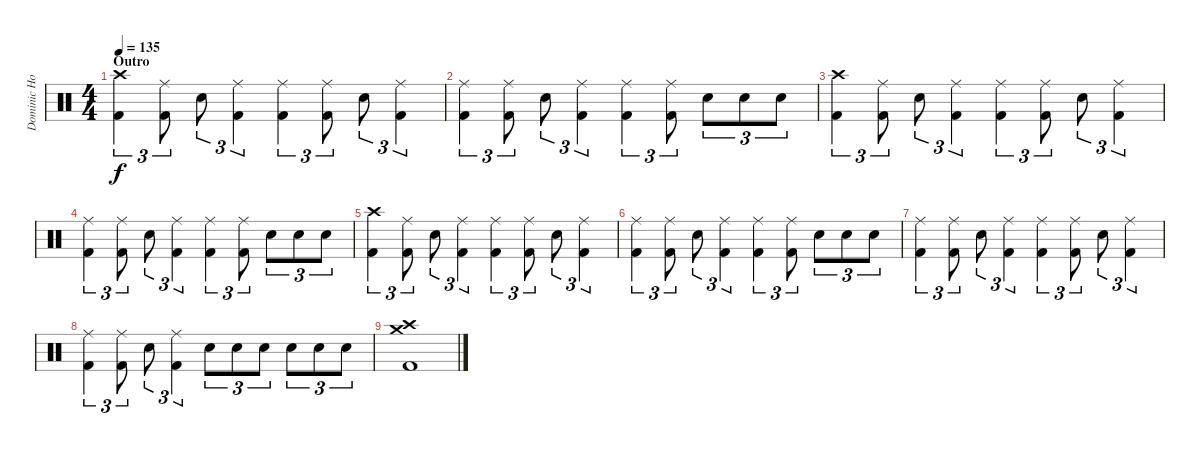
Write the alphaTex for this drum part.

\track ("Dominic Howard (Drums)" "Dominic Ho") {instrument percussion}
\staff {score}
\articulation defaults
\ts (4 4)
\section ("" "Outro")
\tempo 135
\clef neutral
\ks c
("Crash high (hit)" "Kick (hit) 2").4{tu (3 2) dy f} ("Ride (middle)" "Kick (hit) 2").8{tu (3 2)} "Electric Snare (hit)".8{tu (3 2)} ("Ride (middle)" "Kick (hit) 2").4{tu (3 2)} ("Ride (middle)" "Kick (hit) 2").4{tu (3 2)} ("Ride (middle)" "Kick (hit) 2").8{tu (3 2)} "Electric Snare (hit)".8{tu (3 2)} ("Ride (middle)" "Kick (hit) 2").4{tu (3 2)} |
("Ride (middle)" "Kick (hit) 2").4{tu (3 2)} ("Ride (middle)" "Kick (hit) 2").8{tu (3 2)} "Electric Snare (hit)".8{tu (3 2)} ("Ride (middle)" "Kick (hit) 2").4{tu (3 2)} ("Ride (middle)" "Kick (hit) 2").4{tu (3 2)} ("Ride (middle)" "Kick (hit) 2").8{tu (3 2)} "Electric Snare (hit)".8{tu (3 2)} "Electric Snare (hit)".8{tu (3 2)} "Electric Snare (hit)".8{tu (3 2)} |
("Crash high (hit)" "Kick (hit) 2").4{tu (3 2)} ("Ride (middle)" "Kick (hit) 2").8{tu (3 2)} "Electric Snare (hit)".8{tu (3 2)} ("Ride (middle)" "Kick (hit) 2").4{tu (3 2)} ("Ride (middle)" "Kick (hit) 2").4{tu (3 2)} ("Ride (middle)" "Kick (hit) 2").8{tu (3 2)} "Electric Snare (hit)".8{tu (3 2)} ("Ride (middle)" "Kick (hit) 2").4{tu (3 2)} |
("Ride (middle)" "Kick (hit) 2").4{tu (3 2)} ("Ride (middle)" "Kick (hit) 2").8{tu (3 2)} "Electric Snare (hit)".8{tu (3 2)} ("Ride (middle)" "Kick (hit) 2").4{tu (3 2)} ("Ride (middle)" "Kick (hit) 2").4{tu (3 2)} ("Ride (middle)" "Kick (hit) 2").8{tu (3 2)} "Electric Snare (hit)".8{tu (3 2)} "Electric Snare (hit)".8{tu (3 2)} "Electric Snare (hit)".8{tu (3 2)} |
("Crash high (hit)" "Kick (hit) 2").4{tu (3 2)} ("Ride (middle)" "Kick (hit) 2").8{tu (3 2)} "Electric Snare (hit)".8{tu (3 2)} ("Ride (middle)" "Kick (hit) 2").4{tu (3 2)} ("Ride (middle)" "Kick (hit) 2").4{tu (3 2)} ("Ride (middle)" "Kick (hit) 2").8{tu (3 2)} "Electric Snare (hit)".8{tu (3 2)} ("Ride (middle)" "Kick (hit) 2").4{tu (3 2)} |
("Ride (middle)" "Kick (hit) 2").4{tu (3 2)} ("Ride (middle)" "Kick (hit) 2").8{tu (3 2)} "Electric Snare (hit)".8{tu (3 2)} ("Ride (middle)" "Kick (hit) 2").4{tu (3 2)} ("Ride (middle)" "Kick (hit) 2").4{tu (3 2)} ("Ride (middle)" "Kick (hit) 2").8{tu (3 2)} "Electric Snare (hit)".8{tu (3 2)} "Electric Snare (hit)".8{tu (3 2)} "Electric Snare (hit)".8{tu (3 2)} |
("Ride (middle)" "Kick (hit) 2").4{tu (3 2)} ("Ride (middle)" "Kick (hit) 2").8{tu (3 2)} "Electric Snare (hit)".8{tu (3 2)} ("Ride (middle)" "Kick (hit) 2").4{tu (3 2)} ("Ride (middle)" "Kick (hit) 2").4{tu (3 2)} ("Ride (middle)" "Kick (hit) 2").8{tu (3 2)} "Electric Snare (hit)".8{tu (3 2)} ("Ride (middle)" "Kick (hit) 2").4{tu (3 2)} |
("Ride (middle)" "Kick (hit) 2").4{tu (3 2)} ("Ride (middle)" "Kick (hit) 2").8{tu (3 2)} "Electric Snare (hit)".8{tu (3 2)} ("Ride (middle)" "Kick (hit) 2").4{tu (3 2)} "Electric Snare (hit)".8{tu (3 2)} "Electric Snare (hit)".8{tu (3 2)} "Electric Snare (hit)".8{tu (3 2)} "Electric Snare (hit)".8{tu (3 2)} "Electric Snare (hit)".8{tu (3 2)} "Electric Snare (hit)".8{tu (3 2)} |
("Crash medium (hit)" "Crash high (hit)" "Kick (hit) 2").1
